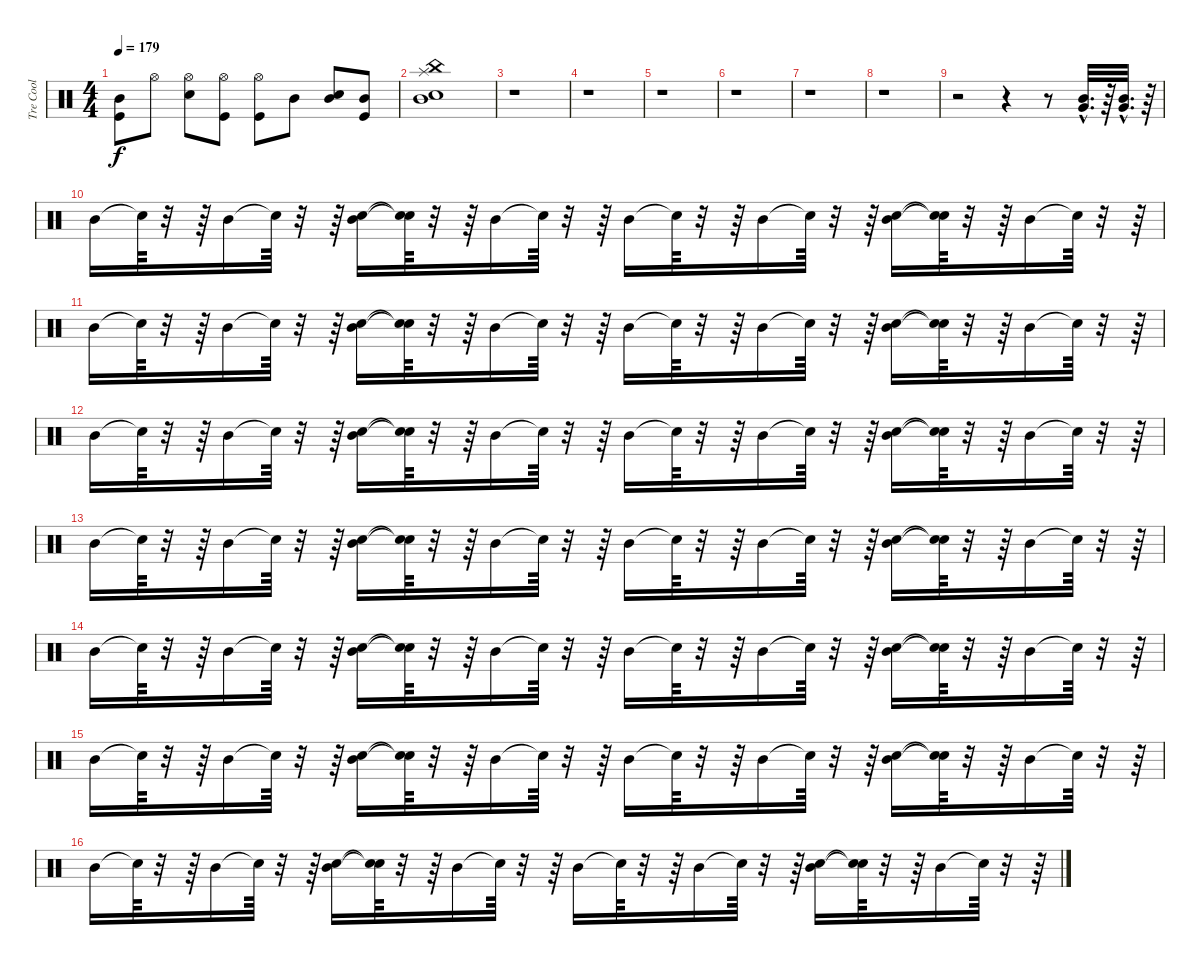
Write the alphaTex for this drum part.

\track ("Tre Cool" "Tre Cool") {instrument percussion}
\staff {score}
\articulation defaults
\ts (4 4)
\tempo 179
\clef neutral
\ks c
("Mid Tom (hit)" "Kick (hit)").8{dy f} "Hi-Hat (open)".8 ("Hi-Hat (open)" "Snare (hit) 2").8 ("Hi-Hat (open)" "Kick (hit)").8 ("Hi-Hat (open)" "Kick (hit)").8 "Mid Tom (hit)".8 ("Mid Tom (hit)" "Snare (hit) 2").8 ("Mid Tom (hit)" "Kick (hit)").8 |
("Splash (hit)" "China (hit)" "Snare (hit) 2" "Mid Tom (hit)").1 |
r.1 |
r.1 |
r.1 |
r.1 |
r.1 |
r.1 |
r.2 r.4 r.8 ("Mid Tom (hit)"{hac} "Very Low Tom (hit)"{hac}).32{d} r.64 ("Mid Tom (hit)"{hac} "Very Low Tom (hit)"{hac}).32{d} r.64 |
"Mid Tom (hit)".16 "Snare (hit)"{t}.64 r.32 r.64 "Mid Tom (hit)".16 "Snare (hit)"{t}.64 r.32 r.64 ("Mid Tom (hit)" "Snare (hit) 2").16 ("Snare (hit)"{t} "Snare (hit)"{t}).64 r.32 r.64 "Mid Tom (hit)".16 "Snare (hit)"{t}.64 r.32 r.64 "Mid Tom (hit)".16 "Snare (hit)"{t}.64 r.32 r.64 "Mid Tom (hit)".16 "Snare (hit)"{t}.64 r.32 r.64 ("Mid Tom (hit)" "Snare (hit) 2").16 ("Snare (hit)"{t} "Snare (hit)"{t}).64 r.32 r.64 "Mid Tom (hit)".16 "Snare (hit)"{t}.64 r.32 r.64 |
"Mid Tom (hit)".16 "Snare (hit)"{t}.64 r.32 r.64 "Mid Tom (hit)".16 "Snare (hit)"{t}.64 r.32 r.64 ("Mid Tom (hit)" "Snare (hit) 2").16 ("Snare (hit)"{t} "Snare (hit)"{t}).64 r.32 r.64 "Mid Tom (hit)".16 "Snare (hit)"{t}.64 r.32 r.64 "Mid Tom (hit)".16 "Snare (hit)"{t}.64 r.32 r.64 "Mid Tom (hit)".16 "Snare (hit)"{t}.64 r.32 r.64 ("Mid Tom (hit)" "Snare (hit) 2").16 ("Snare (hit)"{t} "Snare (hit)"{t}).64 r.32 r.64 "Mid Tom (hit)".16 "Snare (hit)"{t}.64 r.32 r.64 |
"Mid Tom (hit)".16 "Snare (hit)"{t}.64 r.32 r.64 "Mid Tom (hit)".16 "Snare (hit)"{t}.64 r.32 r.64 ("Mid Tom (hit)" "Snare (hit) 2").16 ("Snare (hit)"{t} "Snare (hit)"{t}).64 r.32 r.64 "Mid Tom (hit)".16 "Snare (hit)"{t}.64 r.32 r.64 "Mid Tom (hit)".16 "Snare (hit)"{t}.64 r.32 r.64 "Mid Tom (hit)".16 "Snare (hit)"{t}.64 r.32 r.64 ("Mid Tom (hit)" "Snare (hit) 2").16 ("Snare (hit)"{t} "Snare (hit)"{t}).64 r.32 r.64 "Mid Tom (hit)".16 "Snare (hit)"{t}.64 r.32 r.64 |
"Mid Tom (hit)".16 "Snare (hit)"{t}.64 r.32 r.64 "Mid Tom (hit)".16 "Snare (hit)"{t}.64 r.32 r.64 ("Mid Tom (hit)" "Snare (hit) 2").16 ("Snare (hit)"{t} "Snare (hit)"{t}).64 r.32 r.64 "Mid Tom (hit)".16 "Snare (hit)"{t}.64 r.32 r.64 "Mid Tom (hit)".16 "Snare (hit)"{t}.64 r.32 r.64 "Mid Tom (hit)".16 "Snare (hit)"{t}.64 r.32 r.64 ("Mid Tom (hit)" "Snare (hit) 2").16 ("Snare (hit)"{t} "Snare (hit)"{t}).64 r.32 r.64 "Mid Tom (hit)".16 "Snare (hit)"{t}.64 r.32 r.64 |
"Mid Tom (hit)".16 "Snare (hit)"{t}.64 r.32 r.64 "Mid Tom (hit)".16 "Snare (hit)"{t}.64 r.32 r.64 ("Mid Tom (hit)" "Snare (hit) 2").16 ("Snare (hit)"{t} "Snare (hit)"{t}).64 r.32 r.64 "Mid Tom (hit)".16 "Snare (hit)"{t}.64 r.32 r.64 "Mid Tom (hit)".16 "Snare (hit)"{t}.64 r.32 r.64 "Mid Tom (hit)".16 "Snare (hit)"{t}.64 r.32 r.64 ("Mid Tom (hit)" "Snare (hit) 2").16 ("Snare (hit)"{t} "Snare (hit)"{t}).64 r.32 r.64 "Mid Tom (hit)".16 "Snare (hit)"{t}.64 r.32 r.64 |
"Mid Tom (hit)".16 "Snare (hit)"{t}.64 r.32 r.64 "Mid Tom (hit)".16 "Snare (hit)"{t}.64 r.32 r.64 ("Mid Tom (hit)" "Snare (hit) 2").16 ("Snare (hit)"{t} "Snare (hit)"{t}).64 r.32 r.64 "Mid Tom (hit)".16 "Snare (hit)"{t}.64 r.32 r.64 "Mid Tom (hit)".16 "Snare (hit)"{t}.64 r.32 r.64 "Mid Tom (hit)".16 "Snare (hit)"{t}.64 r.32 r.64 ("Mid Tom (hit)" "Snare (hit) 2").16 ("Snare (hit)"{t} "Snare (hit)"{t}).64 r.32 r.64 "Mid Tom (hit)".16 "Snare (hit)"{t}.64 r.32 r.64 |
"Mid Tom (hit)".16 "Snare (hit)"{t}.64 r.32 r.64 "Mid Tom (hit)".16 "Snare (hit)"{t}.64 r.32 r.64 ("Mid Tom (hit)" "Snare (hit) 2").16 ("Snare (hit)"{t} "Snare (hit)"{t}).64 r.32 r.64 "Mid Tom (hit)".16 "Snare (hit)"{t}.64 r.32 r.64 "Mid Tom (hit)".16 "Snare (hit)"{t}.64 r.32 r.64 "Mid Tom (hit)".16 "Snare (hit)"{t}.64 r.32 r.64 ("Mid Tom (hit)" "Snare (hit) 2").16 ("Snare (hit)"{t} "Snare (hit)"{t}).64 r.32 r.64 "Mid Tom (hit)".16 "Snare (hit)"{t}.64 r.32 r.64
